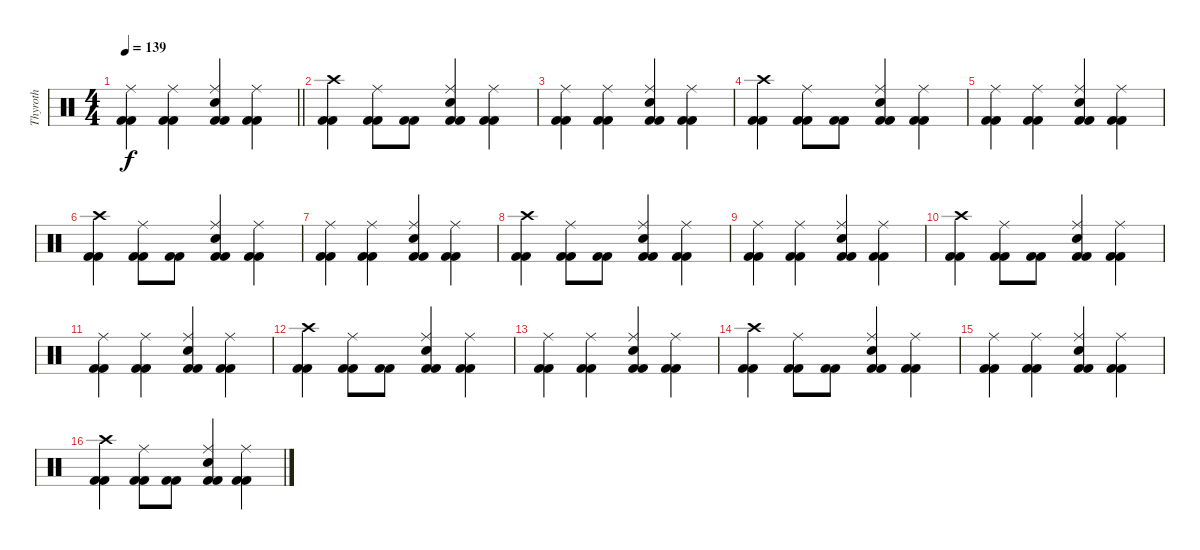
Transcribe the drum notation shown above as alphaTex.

\track ("Thyroth" "Thyroth") {instrument percussion}
\staff {score}
\articulation defaults
\ts (4 4)
\tempo 139
\clef neutral
\barLineRight lightlight
\ks c
("Kick (hit) 2" "Kick (hit) 2" "Ride (middle)").4{dy f} ("Kick (hit) 2" "Kick (hit) 2" "Ride (middle)").4 ("Kick (hit) 2" "Kick (hit) 2" "Snare (hit) 2" "Ride (middle)").4 ("Kick (hit) 2" "Kick (hit) 2" "Ride (middle)").4 |
("Kick (hit) 2" "Kick (hit) 2" "Crash high (hit)").4 ("Kick (hit) 2" "Kick (hit) 2" "Ride (middle)").8 ("Kick (hit) 2" "Kick (hit) 2").8 ("Kick (hit) 2" "Kick (hit) 2" "Snare (hit) 2" "Ride (middle)").4 ("Kick (hit) 2" "Kick (hit) 2" "Ride (middle)").4 |
("Kick (hit) 2" "Kick (hit) 2" "Ride (middle)").4 ("Kick (hit) 2" "Kick (hit) 2" "Ride (middle)").4 ("Kick (hit) 2" "Kick (hit) 2" "Snare (hit) 2" "Ride (middle)").4 ("Kick (hit) 2" "Kick (hit) 2" "Ride (middle)").4 |
("Kick (hit) 2" "Kick (hit) 2" "Crash high (hit)").4 ("Kick (hit) 2" "Kick (hit) 2" "Ride (middle)").8 ("Kick (hit) 2" "Kick (hit) 2").8 ("Kick (hit) 2" "Kick (hit) 2" "Snare (hit) 2" "Ride (middle)").4 ("Kick (hit) 2" "Kick (hit) 2" "Ride (middle)").4 |
("Kick (hit) 2" "Kick (hit) 2" "Ride (middle)").4 ("Kick (hit) 2" "Kick (hit) 2" "Ride (middle)").4 ("Kick (hit) 2" "Kick (hit) 2" "Snare (hit) 2" "Ride (middle)").4 ("Kick (hit) 2" "Kick (hit) 2" "Ride (middle)").4 |
("Kick (hit) 2" "Kick (hit) 2" "Crash high (hit)").4 ("Kick (hit) 2" "Kick (hit) 2" "Ride (middle)").8 ("Kick (hit) 2" "Kick (hit) 2").8 ("Kick (hit) 2" "Kick (hit) 2" "Snare (hit) 2" "Ride (middle)").4 ("Kick (hit) 2" "Kick (hit) 2" "Ride (middle)").4 |
("Kick (hit) 2" "Kick (hit) 2" "Ride (middle)").4 ("Kick (hit) 2" "Kick (hit) 2" "Ride (middle)").4 ("Kick (hit) 2" "Kick (hit) 2" "Snare (hit) 2" "Ride (middle)").4 ("Kick (hit) 2" "Kick (hit) 2" "Ride (middle)").4 |
("Kick (hit) 2" "Kick (hit) 2" "Crash high (hit)").4 ("Kick (hit) 2" "Kick (hit) 2" "Ride (middle)").8 ("Kick (hit) 2" "Kick (hit) 2").8 ("Kick (hit) 2" "Kick (hit) 2" "Snare (hit) 2" "Ride (middle)").4 ("Kick (hit) 2" "Kick (hit) 2" "Ride (middle)").4 |
("Kick (hit) 2" "Kick (hit) 2" "Ride (middle)").4 ("Kick (hit) 2" "Kick (hit) 2" "Ride (middle)").4 ("Kick (hit) 2" "Kick (hit) 2" "Snare (hit) 2" "Ride (middle)").4 ("Kick (hit) 2" "Kick (hit) 2" "Ride (middle)").4 |
("Kick (hit) 2" "Kick (hit) 2" "Crash high (hit)").4 ("Kick (hit) 2" "Kick (hit) 2" "Ride (middle)").8 ("Kick (hit) 2" "Kick (hit) 2").8 ("Kick (hit) 2" "Kick (hit) 2" "Snare (hit) 2" "Ride (middle)").4 ("Kick (hit) 2" "Kick (hit) 2" "Ride (middle)").4 |
("Kick (hit) 2" "Kick (hit) 2" "Ride (middle)").4 ("Kick (hit) 2" "Kick (hit) 2" "Ride (middle)").4 ("Kick (hit) 2" "Kick (hit) 2" "Snare (hit) 2" "Ride (middle)").4 ("Kick (hit) 2" "Kick (hit) 2" "Ride (middle)").4 |
("Kick (hit) 2" "Kick (hit) 2" "Crash high (hit)").4 ("Kick (hit) 2" "Kick (hit) 2" "Ride (middle)").8 ("Kick (hit) 2" "Kick (hit) 2").8 ("Kick (hit) 2" "Kick (hit) 2" "Snare (hit) 2" "Ride (middle)").4 ("Kick (hit) 2" "Kick (hit) 2" "Ride (middle)").4 |
("Kick (hit) 2" "Kick (hit) 2" "Ride (middle)").4 ("Kick (hit) 2" "Kick (hit) 2" "Ride (middle)").4 ("Kick (hit) 2" "Kick (hit) 2" "Snare (hit) 2" "Ride (middle)").4 ("Kick (hit) 2" "Kick (hit) 2" "Ride (middle)").4 |
("Kick (hit) 2" "Kick (hit) 2" "Crash high (hit)").4 ("Kick (hit) 2" "Kick (hit) 2" "Ride (middle)").8 ("Kick (hit) 2" "Kick (hit) 2").8 ("Kick (hit) 2" "Kick (hit) 2" "Snare (hit) 2" "Ride (middle)").4 ("Kick (hit) 2" "Kick (hit) 2" "Ride (middle)").4 |
("Kick (hit) 2" "Kick (hit) 2" "Ride (middle)").4 ("Kick (hit) 2" "Kick (hit) 2" "Ride (middle)").4 ("Kick (hit) 2" "Kick (hit) 2" "Snare (hit) 2" "Ride (middle)").4 ("Kick (hit) 2" "Kick (hit) 2" "Ride (middle)").4 |
("Kick (hit) 2" "Kick (hit) 2" "Crash high (hit)").4 ("Kick (hit) 2" "Kick (hit) 2" "Ride (middle)").8 ("Kick (hit) 2" "Kick (hit) 2").8 ("Kick (hit) 2" "Kick (hit) 2" "Snare (hit) 2" "Ride (middle)").4 ("Kick (hit) 2" "Kick (hit) 2" "Ride (middle)").4
